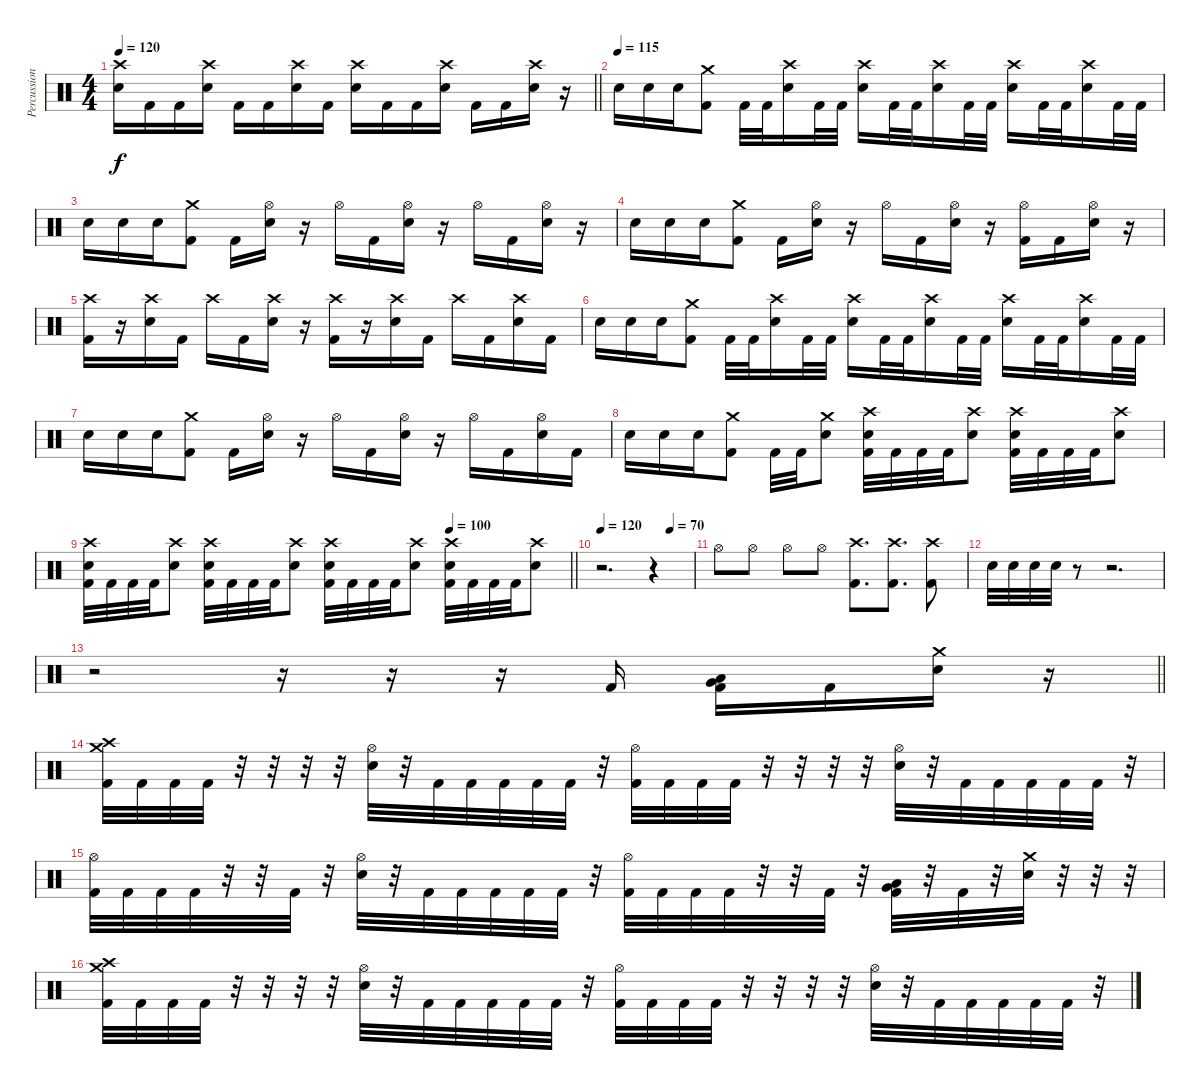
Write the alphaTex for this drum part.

\track ("Percussion" "Percussion") {instrument percussion}
\staff {score}
\articulation defaults
\ts (4 4)
\tempo 120
\clef neutral
\barLineRight lightlight
\ks c
("Crash high (hit)" "Snare (hit) 2").16{dy f} "Kick (hit) 2".16 "Kick (hit) 2".16 ("Crash high (hit)" "Snare (hit) 2").16 "Kick (hit) 2".16 "Kick (hit) 2".16 ("Crash high (hit)" "Snare (hit) 2").16 "Kick (hit) 2".16 ("Crash high (hit)" "Snare (hit) 2").16 "Kick (hit) 2".16 "Kick (hit) 2".16 ("Crash high (hit)" "Snare (hit) 2").16 "Kick (hit) 2".16 "Kick (hit) 2".16 ("Crash high (hit)" "Snare (hit) 2").16 r.16 |
\section ("" "")
\tempo (115)
"Snare (hit) 2".16 "Snare (hit) 2".16 "Snare (hit) 2".16 ("Crash medium (hit)" "Kick (hit) 2").8 "Kick (hit) 2".32 "Kick (hit) 2".32 ("Crash high (hit)" "Snare (hit) 2").16 "Kick (hit) 2".32 "Kick (hit) 2".32 ("Crash high (hit)" "Snare (hit) 2").16 "Kick (hit) 2".32 "Kick (hit) 2".32 ("Crash high (hit)" "Snare (hit) 2").16 "Kick (hit) 2".32 "Kick (hit) 2".32 ("Crash high (hit)" "Snare (hit) 2").16 "Kick (hit) 2".32 "Kick (hit) 2".32 ("Crash high (hit)" "Snare (hit) 2").16 "Kick (hit) 2".32 "Kick (hit) 2".32 |
"Snare (hit) 2".16 "Snare (hit) 2".16 "Snare (hit) 2".16 ("Crash medium (hit)" "Kick (hit) 2").8 "Kick (hit) 2".16 ("Hi-Hat (open)" "Snare (hit) 2").16 r.16 "Hi-Hat (open)".16 "Kick (hit) 2".16 ("Hi-Hat (open)" "Snare (hit) 2").16 r.16 "Hi-Hat (open)".16 "Kick (hit) 2".16 ("Hi-Hat (open)" "Snare (hit) 2").16 r.16 |
"Snare (hit) 2".16 "Snare (hit) 2".16 "Snare (hit) 2".16 ("Crash medium (hit)" "Kick (hit) 2").8 "Kick (hit) 2".16 ("Hi-Hat (open)" "Snare (hit) 2").16 r.16 "Hi-Hat (open)".16 "Kick (hit) 2".16 ("Hi-Hat (open)" "Snare (hit) 2").16 r.16 ("Hi-Hat (open)" "Kick (hit) 2").16 "Kick (hit) 2".16 ("Hi-Hat (open)" "Snare (hit) 2").16 r.16 |
("Crash high (hit)" "Kick (hit) 2").16 r.16 ("Crash high (hit)" "Snare (hit) 2").16 "Kick (hit) 2".16 "Crash high (hit)".16 "Kick (hit) 2".16 ("Crash high (hit)" "Snare (hit) 2").16 r.16 ("Crash high (hit)" "Kick (hit) 2").16 r.16 ("Crash high (hit)" "Snare (hit) 2").16 "Kick (hit) 2".16 "Crash high (hit)".16 "Kick (hit) 2".16 ("Crash high (hit)" "Snare (hit) 2").16 "Kick (hit) 2".16 |
"Snare (hit) 2".16 "Snare (hit) 2".16 "Snare (hit) 2".16 ("Crash medium (hit)" "Kick (hit) 2").8 "Kick (hit) 2".32 "Kick (hit) 2".32 ("Crash high (hit)" "Snare (hit) 2").16 "Kick (hit) 2".32 "Kick (hit) 2".32 ("Crash high (hit)" "Snare (hit) 2").16 "Kick (hit) 2".32 "Kick (hit) 2".32 ("Crash high (hit)" "Snare (hit) 2").16 "Kick (hit) 2".32 "Kick (hit) 2".32 ("Crash high (hit)" "Snare (hit) 2").16 "Kick (hit) 2".32 "Kick (hit) 2".32 ("Crash high (hit)" "Snare (hit) 2").16 "Kick (hit) 2".32 "Kick (hit) 2".32 |
"Snare (hit) 2".16 "Snare (hit) 2".16 "Snare (hit) 2".16 ("Crash medium (hit)" "Kick (hit) 2").8 "Kick (hit) 2".16 ("Hi-Hat (open)" "Snare (hit) 2").16 r.16 "Hi-Hat (open)".16 "Kick (hit) 2".16 ("Hi-Hat (open)" "Snare (hit) 2").16 r.16 "Hi-Hat (open)".16 "Kick (hit) 2".16 ("Hi-Hat (open)" "Snare (hit) 2").16 "Kick (hit) 2".16 |
"Snare (hit) 2".16 "Snare (hit) 2".16 "Snare (hit) 2".16 ("Crash medium (hit)" "Kick (hit) 2").8 "Kick (hit) 2".32 "Kick (hit) 2".32 ("Crash medium (hit)" "Snare (hit) 2").8 ("Crash high (hit)" "Snare (hit) 2" "Kick (hit) 2").32 "Kick (hit) 2".32 "Kick (hit) 2".32 "Kick (hit) 2".32 ("Crash high (hit)" "Snare (hit) 2").8 ("Crash high (hit)" "Snare (hit) 2" "Kick (hit) 2").32 "Kick (hit) 2".32 "Kick (hit) 2".32 "Kick (hit) 2".32 ("Crash high (hit)" "Snare (hit) 2").8 |
\tempo (100 0.75)
\barLineRight lightlight
("Crash high (hit)" "Snare (hit) 2" "Kick (hit) 2").32 "Kick (hit) 2".32 "Kick (hit) 2".32 "Kick (hit) 2".32 ("Crash high (hit)" "Snare (hit) 2").8 ("Crash high (hit)" "Snare (hit) 2" "Kick (hit) 2").32 "Kick (hit) 2".32 "Kick (hit) 2".32 "Kick (hit) 2".32 ("Crash high (hit)" "Snare (hit) 2").8 ("Crash high (hit)" "Snare (hit) 2" "Kick (hit) 2").32 "Kick (hit) 2".32 "Kick (hit) 2".32 "Kick (hit) 2".32 ("Crash high (hit)" "Snare (hit) 2").8 ("Crash high (hit)" "Snare (hit) 2" "Kick (hit) 2").32 "Kick (hit) 2".32 "Kick (hit) 2".32 "Kick (hit) 2".32 ("Crash high (hit)" "Snare (hit) 2").8 |
\section ("" "")
\tempo 120
\tempo (70 0.75)
r.2{d} r.4 |
"Hi-Hat (open)".8 "Hi-Hat (open)".8 "Hi-Hat (open)".8 "Hi-Hat (open)".8 ("Crash high (hit)" "Kick (hit) 2").8{d} ("Crash high (hit)" "Kick (hit) 2").8{d} ("Crash high (hit)" "Kick (hit) 2").8 |
"Snare (hit) 2".32 "Snare (hit) 2".32 "Snare (hit) 2".32 "Snare (hit) 2".32 r.8 r.2{d} |
\barLineRight lightlight
r.2 r.16 r.16 r.16 "Kick (hit) 2".16 ("Low Tom (hit)" "Very Low Tom (hit)" "Kick (hit) 2").16 "Kick (hit) 2".16 ("Crash medium (hit)" "Snare (hit) 2").16 r.16 |
\section ("" "")
("Crash high (hit)" "Crash medium (hit)" "Kick (hit) 2").32 "Kick (hit) 2".32 "Kick (hit) 2".32 "Kick (hit) 2".32 r.32 r.32 r.32 r.32 ("Hi-Hat (open)" "Snare (hit) 2").32 r.32 "Kick (hit) 2".32 "Kick (hit) 2".32 "Kick (hit) 2".32 "Kick (hit) 2".32 "Kick (hit) 2".32 r.32 ("Hi-Hat (open)" "Kick (hit) 2").32 "Kick (hit) 2".32 "Kick (hit) 2".32 "Kick (hit) 2".32 r.32 r.32 r.32 r.32 ("Hi-Hat (open)" "Snare (hit) 2").32 r.32 "Kick (hit) 2".32 "Kick (hit) 2".32 "Kick (hit) 2".32 "Kick (hit) 2".32 "Kick (hit) 2".32 r.32 |
("Hi-Hat (open)" "Kick (hit) 2").32 "Kick (hit) 2".32 "Kick (hit) 2".32 "Kick (hit) 2".32 r.32 r.32 "Kick (hit) 2".32 r.32 ("Hi-Hat (open)" "Snare (hit) 2").32 r.32 "Kick (hit) 2".32 "Kick (hit) 2".32 "Kick (hit) 2".32 "Kick (hit) 2".32 "Kick (hit) 2".32 r.32 ("Hi-Hat (open)" "Kick (hit) 2").32 "Kick (hit) 2".32 "Kick (hit) 2".32 "Kick (hit) 2".32 r.32 r.32 "Kick (hit) 2".32 r.32 ("Low Tom (hit)" "Very Low Tom (hit)" "Kick (hit) 2").32 r.32 "Kick (hit) 2".32 r.32 ("Crash medium (hit)" "Snare (hit) 2").32 r.32 r.32 r.32 |
("Crash high (hit)" "Crash medium (hit)" "Kick (hit) 2").32 "Kick (hit) 2".32 "Kick (hit) 2".32 "Kick (hit) 2".32 r.32 r.32 r.32 r.32 ("Hi-Hat (open)" "Snare (hit) 2").32 r.32 "Kick (hit) 2".32 "Kick (hit) 2".32 "Kick (hit) 2".32 "Kick (hit) 2".32 "Kick (hit) 2".32 r.32 ("Hi-Hat (open)" "Kick (hit) 2").32 "Kick (hit) 2".32 "Kick (hit) 2".32 "Kick (hit) 2".32 r.32 r.32 r.32 r.32 ("Hi-Hat (open)" "Snare (hit) 2").32 r.32 "Kick (hit) 2".32 "Kick (hit) 2".32 "Kick (hit) 2".32 "Kick (hit) 2".32 "Kick (hit) 2".32 r.32
